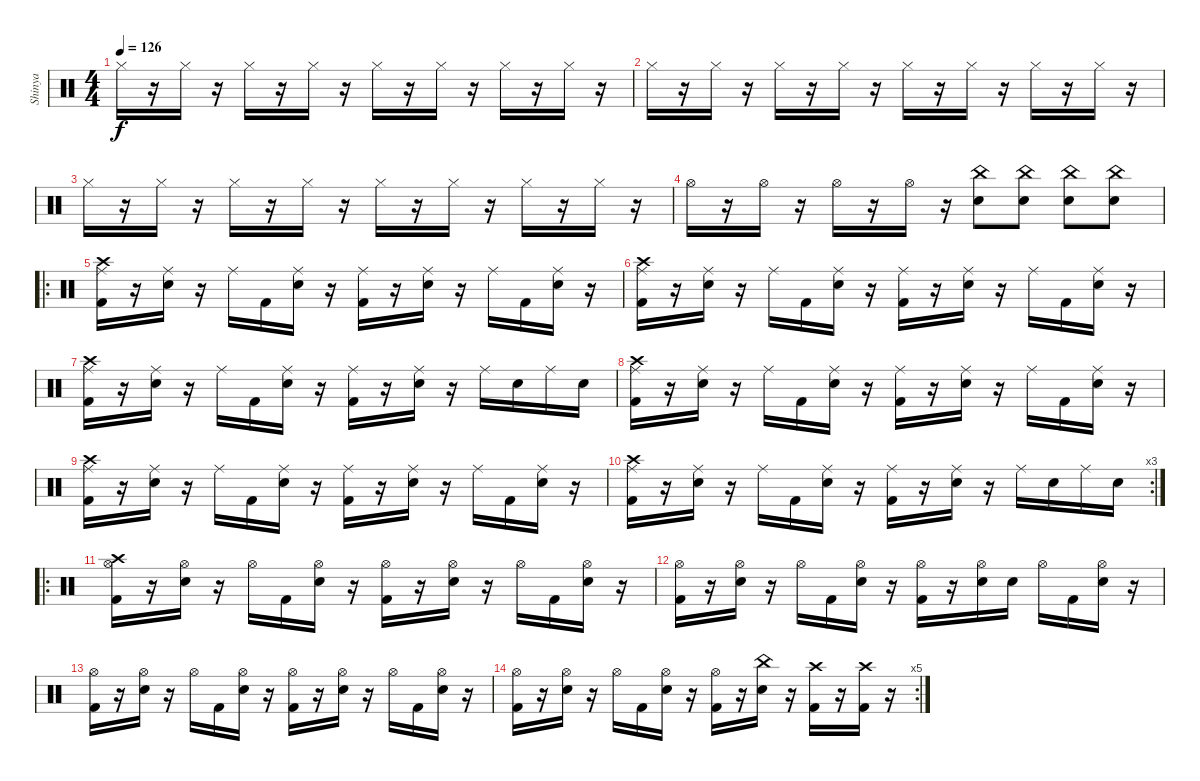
\track ("Shinya" "Shinya") {instrument percussion}
\staff {score}
\articulation defaults
\ts (4 4)
\tempo 126
\clef neutral
\ks c "Hi-Hat (closed)".16{dy f}
r.16 "Hi-Hat (closed)".16 r.16 "Hi-Hat (closed)".16 r.16 "Hi-Hat (closed)".16 r.16 "Hi-Hat (closed)".16 r.16 "Hi-Hat (closed)".16 r.16 "Hi-Hat (closed)".16 r.16 "Hi-Hat (closed)".16 r.16 |
"Hi-Hat (closed)".16 r.16 "Hi-Hat (closed)".16 r.16 "Hi-Hat (closed)".16 r.16 "Hi-Hat (closed)".16 r.16 "Hi-Hat (closed)".16 r.16 "Hi-Hat (closed)".16 r.16 "Hi-Hat (closed)".16 r.16 "Hi-Hat (closed)".16 r.16 |
"Hi-Hat (closed)".16 r.16 "Hi-Hat (closed)".16 r.16 "Hi-Hat (closed)".16 r.16 "Hi-Hat (closed)".16 r.16 "Hi-Hat (closed)".16 r.16 "Hi-Hat (closed)".16 r.16 "Hi-Hat (closed)".16 r.16 "Hi-Hat (closed)".16 r.16 |
"Hi-Hat (open)".16 r.16 "Hi-Hat (open)".16 r.16 "Hi-Hat (open)".16 r.16 "Hi-Hat (open)".16 r.16 ("China (hit)" "Electric Snare (hit)").8 ("China (hit)" "Electric Snare (hit)").8 ("China (hit)" "Electric Snare (hit)").8 ("China (hit)" "Electric Snare (hit)").8 |
\ro
("Ride (middle)" "Crash high (hit)" "Kick (hit) 2").16 r.16 ("Ride (middle)" "Electric Snare (hit)").16 r.16 "Ride (middle)".16 "Kick (hit) 2".16 ("Ride (middle)" "Electric Snare (hit)").16 r.16 ("Ride (middle)" "Kick (hit) 2").16 r.16 ("Ride (middle)" "Electric Snare (hit)").16 r.16 "Ride (middle)".16 "Kick (hit) 2".16 ("Ride (middle)" "Electric Snare (hit)").16 r.16 |
("Ride (middle)" "Crash high (hit)" "Kick (hit) 2").16 r.16 ("Ride (middle)" "Electric Snare (hit)").16 r.16 "Ride (middle)".16 "Kick (hit) 2".16 ("Ride (middle)" "Electric Snare (hit)").16 r.16 ("Ride (middle)" "Kick (hit) 2").16 r.16 ("Ride (middle)" "Electric Snare (hit)").16 r.16 "Ride (middle)".16 "Kick (hit) 2".16 ("Ride (middle)" "Electric Snare (hit)").16 r.16 |
("Ride (middle)" "Crash high (hit)" "Kick (hit) 2").16 r.16 ("Ride (middle)" "Electric Snare (hit)").16 r.16 "Ride (middle)".16 "Kick (hit) 2".16 ("Ride (middle)" "Electric Snare (hit)").16 r.16 ("Ride (middle)" "Kick (hit) 2").16 r.16 ("Ride (middle)" "Electric Snare (hit)").16 r.16 "Ride (middle)".16 "Electric Snare (hit)".16 "Ride (middle)".16 "Electric Snare (hit)".16 |
("Ride (middle)" "Crash high (hit)" "Kick (hit) 2").16 r.16 ("Ride (middle)" "Electric Snare (hit)").16 r.16 "Ride (middle)".16 "Kick (hit) 2".16 ("Ride (middle)" "Electric Snare (hit)").16 r.16 ("Ride (middle)" "Kick (hit) 2").16 r.16 ("Ride (middle)" "Electric Snare (hit)").16 r.16 "Ride (middle)".16 "Kick (hit) 2".16 ("Ride (middle)" "Electric Snare (hit)").16 r.16 |
("Ride (middle)" "Crash high (hit)" "Kick (hit) 2").16 r.16 ("Ride (middle)" "Electric Snare (hit)").16 r.16 "Ride (middle)".16 "Kick (hit) 2".16 ("Ride (middle)" "Electric Snare (hit)").16 r.16 ("Ride (middle)" "Kick (hit) 2").16 r.16 ("Ride (middle)" "Electric Snare (hit)").16 r.16 "Ride (middle)".16 "Kick (hit) 2".16 ("Ride (middle)" "Electric Snare (hit)").16 r.16 |
\rc 3
("Ride (middle)" "Crash high (hit)" "Kick (hit) 2").16 r.16 ("Ride (middle)" "Electric Snare (hit)").16 r.16 "Ride (middle)".16 "Kick (hit) 2".16 ("Ride (middle)" "Electric Snare (hit)").16 r.16 ("Ride (middle)" "Kick (hit) 2").16 r.16 ("Ride (middle)" "Electric Snare (hit)").16 r.16 "Ride (middle)".16 "Electric Snare (hit)".16 "Ride (middle)".16 "Electric Snare (hit)".16 |
\ro
("Hi-Hat (open)" "Crash high (hit)" "Kick (hit) 2").16 r.16 ("Hi-Hat (open)" "Electric Snare (hit)").16 r.16 "Hi-Hat (open)".16 "Kick (hit) 2".16 ("Hi-Hat (open)" "Electric Snare (hit)").16 r.16 ("Hi-Hat (open)" "Kick (hit) 2").16 r.16 ("Hi-Hat (open)" "Electric Snare (hit)").16 r.16 "Hi-Hat (open)".16 "Kick (hit) 2".16 ("Hi-Hat (open)" "Electric Snare (hit)").16 r.16 |
("Hi-Hat (open)" "Kick (hit) 2").16 r.16 ("Hi-Hat (open)" "Electric Snare (hit)").16 r.16 "Hi-Hat (open)".16 "Kick (hit) 2".16 ("Hi-Hat (open)" "Electric Snare (hit)").16 r.16 ("Hi-Hat (open)" "Kick (hit) 2").16 r.16 ("Hi-Hat (open)" "Electric Snare (hit)").16 "Electric Snare (hit)".16 "Hi-Hat (open)".16 "Kick (hit) 2".16 ("Hi-Hat (open)" "Electric Snare (hit)").16 r.16 |
("Hi-Hat (open)" "Kick (hit) 2").16 r.16 ("Hi-Hat (open)" "Electric Snare (hit)").16 r.16 "Hi-Hat (open)".16 "Kick (hit) 2".16 ("Hi-Hat (open)" "Electric Snare (hit)").16 r.16 ("Hi-Hat (open)" "Kick (hit) 2").16 r.16 ("Hi-Hat (open)" "Electric Snare (hit)").16 r.16 "Hi-Hat (open)".16 "Kick (hit) 2".16 ("Hi-Hat (open)" "Electric Snare (hit)").16 r.16 |
\rc 5
("Hi-Hat (open)" "Kick (hit) 2").16 r.16 ("Hi-Hat (open)" "Electric Snare (hit)").16 r.16 "Hi-Hat (open)".16 "Kick (hit) 2".16 ("Hi-Hat (open)" "Electric Snare (hit)").16 r.16 ("Hi-Hat (open)" "Kick (hit) 2").16 r.16 ("China (hit)" "Electric Snare (hit)").16 r.16 ("Crash high (hit)" "Kick (hit) 2").16 r.16 ("Crash high (hit)" "Kick (hit) 2").16 r.16
